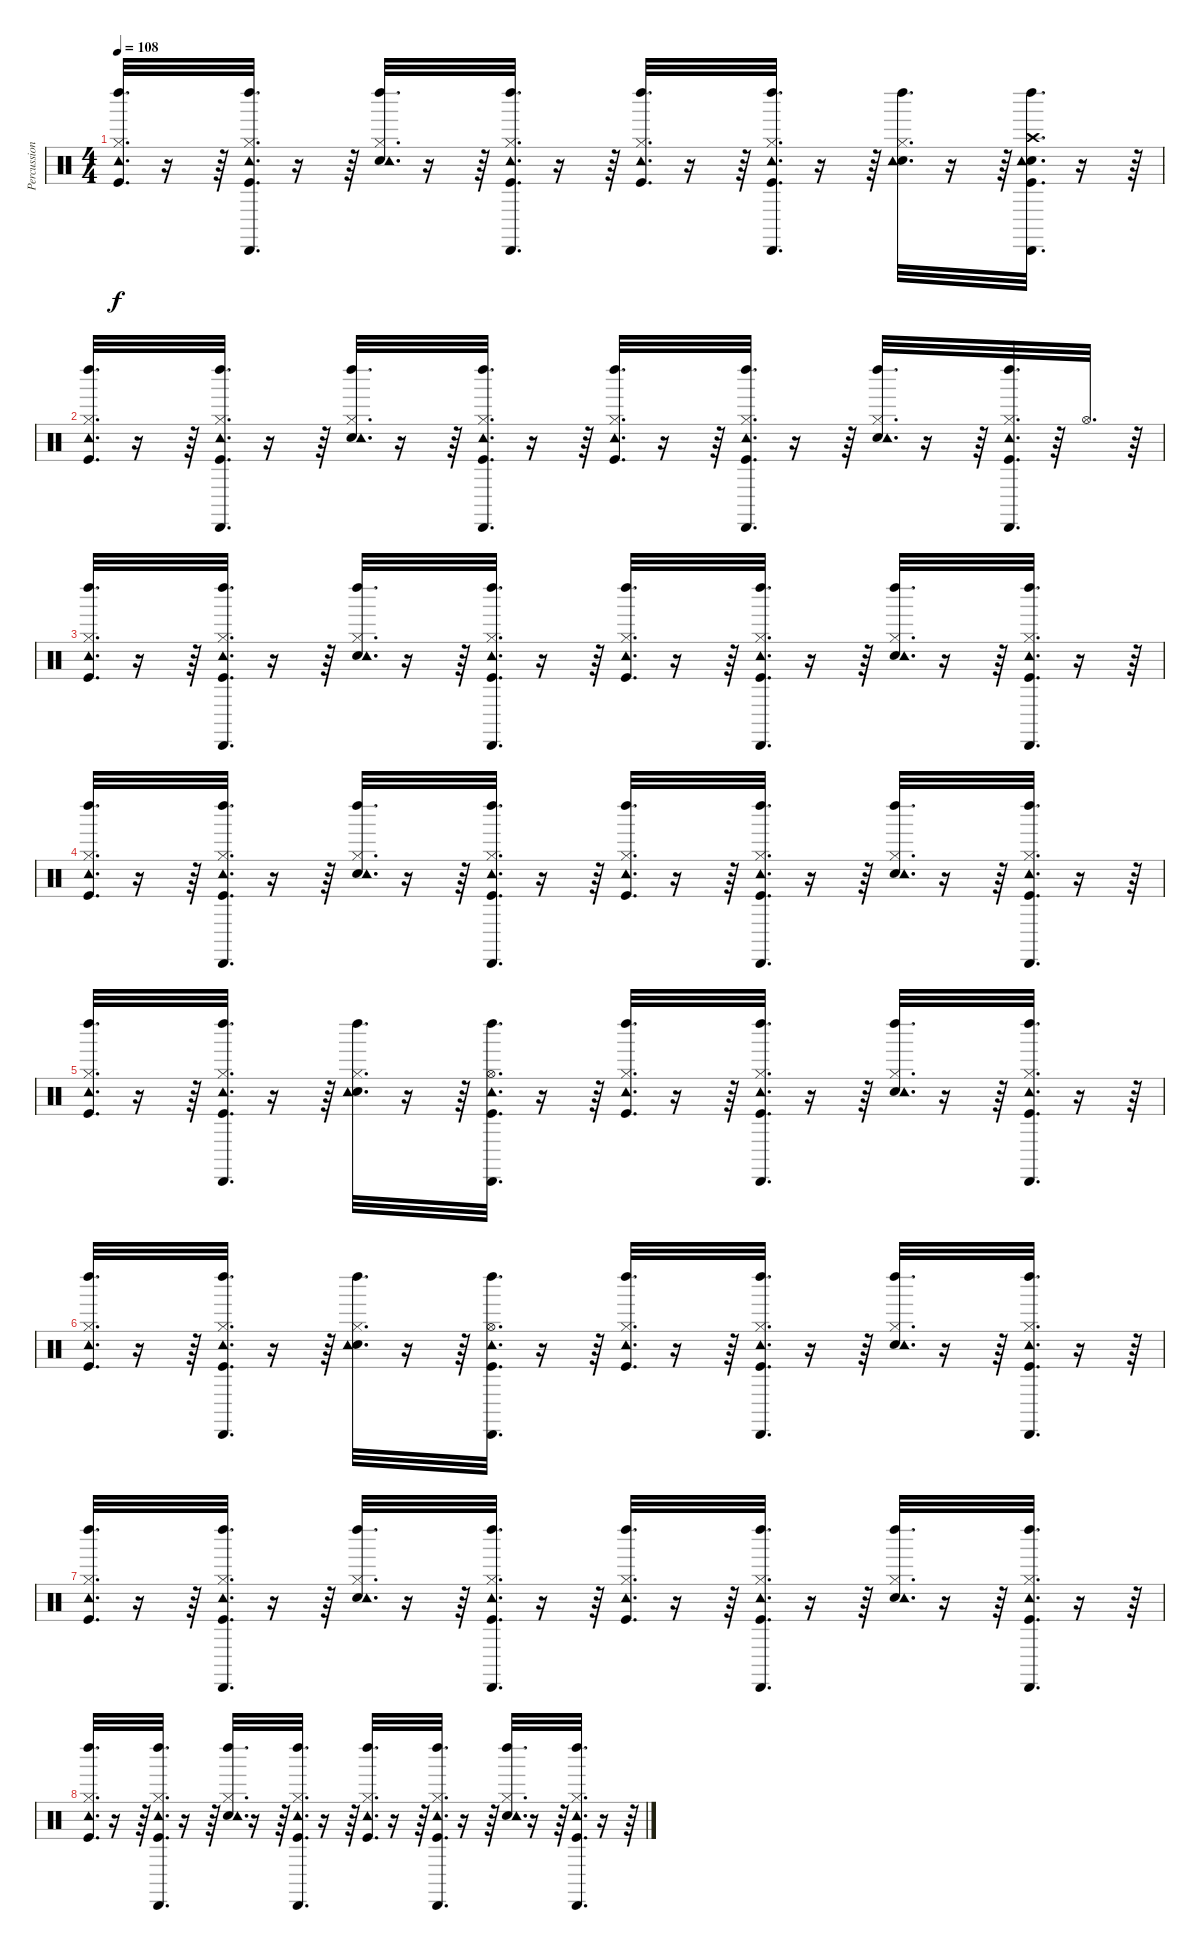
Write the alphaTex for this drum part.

\track ("Percussions" "Percussion") {instrument percussion}
\staff {score}
\articulation defaults
\ts (4 4)
\tempo 108
\clef neutral
\ks c
("Left Maraca (hit)" "Kick (hit)" "Hi-Hat (closed)" "Tambourine (hit)").32{d dy f} r.16 r.64 ("Cabasa (hit)" "Tambourine (hit)" "Kick (hit)" "Hi-Hat (closed)" "Left Maraca (hit)").32{d} r.16 r.64 ("Left Maraca (hit)" "Snare (hit) 2" "Hi-Hat (closed)" "Tambourine (hit)").32{d} r.16 r.64 ("Cabasa (hit)" "Tambourine (hit)" "Kick (hit)" "Hi-Hat (closed)" "Left Maraca (hit)").32{d} r.16 r.64 ("Left Maraca (hit)" "Kick (hit)" "Hi-Hat (closed)" "Tambourine (hit)").32{d} r.16 r.64 ("Cabasa (hit)" "Tambourine (hit)" "Kick (hit)" "Hi-Hat (closed)" "Left Maraca (hit)").32{d} r.16 r.64 ("Left Maraca (hit)" "Hi-Hat (closed)" "Snare (hit) 2" "Tambourine (hit)").32{d} r.16 r.64 ("Cabasa (hit)" "Snare (hit) 2" "Crash high (hit)" "Kick (hit)" "Left Maraca (hit)" "Tambourine (hit)").32{d} r.16 r.64 |
("Left Maraca (hit)" "Kick (hit)" "Hi-Hat (closed)" "Tambourine (hit)").32{d} r.16 r.64 ("Cabasa (hit)" "Tambourine (hit)" "Kick (hit)" "Hi-Hat (closed)" "Left Maraca (hit)").32{d} r.16 r.64 ("Left Maraca (hit)" "Snare (hit) 2" "Hi-Hat (closed)" "Tambourine (hit)").32{d} r.16 r.64 ("Cabasa (hit)" "Tambourine (hit)" "Kick (hit)" "Hi-Hat (closed)" "Left Maraca (hit)").32{d} r.16 r.64 ("Left Maraca (hit)" "Kick (hit)" "Hi-Hat (closed)" "Tambourine (hit)").32{d} r.16 r.64 ("Cabasa (hit)" "Tambourine (hit)" "Kick (hit)" "Hi-Hat (closed)" "Left Maraca (hit)").32{d} r.16 r.64 ("Left Maraca (hit)" "Snare (hit) 2" "Hi-Hat (closed)" "Tambourine (hit)").32{d} r.16 r.64 ("Cabasa (hit)" "Tambourine (hit)" "Kick (hit)" "Hi-Hat (closed)" "Left Maraca (hit)").32{d} r.64 "Hi-Hat (open)".32{d} r.64 |
("Left Maraca (hit)" "Kick (hit)" "Hi-Hat (closed)" "Tambourine (hit)").32{d} r.16 r.64 ("Cabasa (hit)" "Tambourine (hit)" "Kick (hit)" "Hi-Hat (closed)" "Left Maraca (hit)").32{d} r.16 r.64 ("Left Maraca (hit)" "Snare (hit) 2" "Hi-Hat (closed)" "Tambourine (hit)").32{d} r.16 r.64 ("Cabasa (hit)" "Tambourine (hit)" "Kick (hit)" "Hi-Hat (closed)" "Left Maraca (hit)").32{d} r.16 r.64 ("Left Maraca (hit)" "Kick (hit)" "Hi-Hat (closed)" "Tambourine (hit)").32{d} r.16 r.64 ("Cabasa (hit)" "Tambourine (hit)" "Kick (hit)" "Hi-Hat (closed)" "Left Maraca (hit)").32{d} r.16 r.64 ("Left Maraca (hit)" "Snare (hit) 2" "Hi-Hat (closed)" "Tambourine (hit)").32{d} r.16 r.64 ("Cabasa (hit)" "Tambourine (hit)" "Kick (hit)" "Hi-Hat (closed)" "Left Maraca (hit)").32{d} r.16 r.64 |
("Left Maraca (hit)" "Kick (hit)" "Hi-Hat (closed)" "Tambourine (hit)").32{d} r.16 r.64 ("Cabasa (hit)" "Tambourine (hit)" "Kick (hit)" "Hi-Hat (closed)" "Left Maraca (hit)").32{d} r.16 r.64 ("Left Maraca (hit)" "Snare (hit) 2" "Hi-Hat (closed)" "Tambourine (hit)").32{d} r.16 r.64 ("Cabasa (hit)" "Tambourine (hit)" "Kick (hit)" "Hi-Hat (closed)" "Left Maraca (hit)").32{d} r.16 r.64 ("Left Maraca (hit)" "Kick (hit)" "Hi-Hat (closed)" "Tambourine (hit)").32{d} r.16 r.64 ("Cabasa (hit)" "Tambourine (hit)" "Kick (hit)" "Hi-Hat (closed)" "Left Maraca (hit)").32{d} r.16 r.64 ("Left Maraca (hit)" "Snare (hit) 2" "Hi-Hat (closed)" "Tambourine (hit)").32{d} r.16 r.64 ("Cabasa (hit)" "Tambourine (hit)" "Kick (hit)" "Hi-Hat (closed)" "Left Maraca (hit)").32{d} r.16 r.64 |
("Left Maraca (hit)" "Kick (hit)" "Hi-Hat (closed)" "Tambourine (hit)").32{d} r.16 r.64 ("Cabasa (hit)" "Tambourine (hit)" "Kick (hit)" "Hi-Hat (closed)" "Left Maraca (hit)").32{d} r.16 r.64 ("Left Maraca (hit)" "Snare (hit) 2" "Hi-Hat (closed)" "Tambourine (hit)").32{d} r.16 r.64 ("Cabasa (hit)" "Tambourine (hit)" "Kick (hit)" "Hi-Hat (open)" "Left Maraca (hit)").32{d} r.16 r.64 ("Left Maraca (hit)" "Kick (hit)" "Hi-Hat (closed)" "Tambourine (hit)").32{d} r.16 r.64 ("Cabasa (hit)" "Tambourine (hit)" "Kick (hit)" "Hi-Hat (closed)" "Left Maraca (hit)").32{d} r.16 r.64 ("Left Maraca (hit)" "Snare (hit) 2" "Hi-Hat (closed)" "Tambourine (hit)").32{d} r.16 r.64 ("Cabasa (hit)" "Tambourine (hit)" "Kick (hit)" "Hi-Hat (closed)" "Left Maraca (hit)").32{d} r.16 r.64 |
("Left Maraca (hit)" "Kick (hit)" "Hi-Hat (closed)" "Tambourine (hit)").32{d} r.16 r.64 ("Cabasa (hit)" "Tambourine (hit)" "Kick (hit)" "Hi-Hat (closed)" "Left Maraca (hit)").32{d} r.16 r.64 ("Left Maraca (hit)" "Snare (hit) 2" "Hi-Hat (closed)" "Tambourine (hit)").32{d} r.16 r.64 ("Cabasa (hit)" "Tambourine (hit)" "Kick (hit)" "Hi-Hat (open)" "Left Maraca (hit)").32{d} r.16 r.64 ("Left Maraca (hit)" "Kick (hit)" "Hi-Hat (closed)" "Tambourine (hit)").32{d} r.16 r.64 ("Cabasa (hit)" "Tambourine (hit)" "Kick (hit)" "Hi-Hat (closed)" "Left Maraca (hit)").32{d} r.16 r.64 ("Left Maraca (hit)" "Snare (hit) 2" "Hi-Hat (closed)" "Tambourine (hit)").32{d} r.16 r.64 ("Cabasa (hit)" "Tambourine (hit)" "Kick (hit)" "Hi-Hat (closed)" "Left Maraca (hit)").32{d} r.16 r.64 |
("Left Maraca (hit)" "Kick (hit)" "Hi-Hat (closed)" "Tambourine (hit)").32{d} r.16 r.64 ("Cabasa (hit)" "Tambourine (hit)" "Kick (hit)" "Hi-Hat (closed)" "Left Maraca (hit)").32{d} r.16 r.64 ("Left Maraca (hit)" "Snare (hit) 2" "Hi-Hat (closed)" "Tambourine (hit)").32{d} r.16 r.64 ("Cabasa (hit)" "Tambourine (hit)" "Kick (hit)" "Hi-Hat (closed)" "Left Maraca (hit)").32{d} r.16 r.64 ("Left Maraca (hit)" "Kick (hit)" "Hi-Hat (closed)" "Tambourine (hit)").32{d} r.16 r.64 ("Cabasa (hit)" "Tambourine (hit)" "Kick (hit)" "Hi-Hat (closed)" "Left Maraca (hit)").32{d} r.16 r.64 ("Left Maraca (hit)" "Snare (hit) 2" "Hi-Hat (closed)" "Tambourine (hit)").32{d} r.16 r.64 ("Cabasa (hit)" "Tambourine (hit)" "Kick (hit)" "Hi-Hat (closed)" "Left Maraca (hit)").32{d} r.16 r.64 |
("Left Maraca (hit)" "Kick (hit)" "Hi-Hat (closed)" "Tambourine (hit)").32{d} r.16 r.64 ("Cabasa (hit)" "Tambourine (hit)" "Kick (hit)" "Hi-Hat (closed)" "Left Maraca (hit)").32{d} r.16 r.64 ("Left Maraca (hit)" "Snare (hit) 2" "Hi-Hat (closed)" "Tambourine (hit)").32{d} r.16 r.64 ("Cabasa (hit)" "Tambourine (hit)" "Kick (hit)" "Hi-Hat (closed)" "Left Maraca (hit)").32{d} r.16 r.64 ("Left Maraca (hit)" "Kick (hit)" "Hi-Hat (closed)" "Tambourine (hit)").32{d} r.16 r.64 ("Cabasa (hit)" "Tambourine (hit)" "Kick (hit)" "Hi-Hat (closed)" "Left Maraca (hit)").32{d} r.16 r.64 ("Left Maraca (hit)" "Snare (hit) 2" "Hi-Hat (closed)" "Tambourine (hit)").32{d} r.16 r.64 ("Cabasa (hit)" "Tambourine (hit)" "Kick (hit)" "Hi-Hat (closed)" "Left Maraca (hit)").32{d} r.16 r.64
